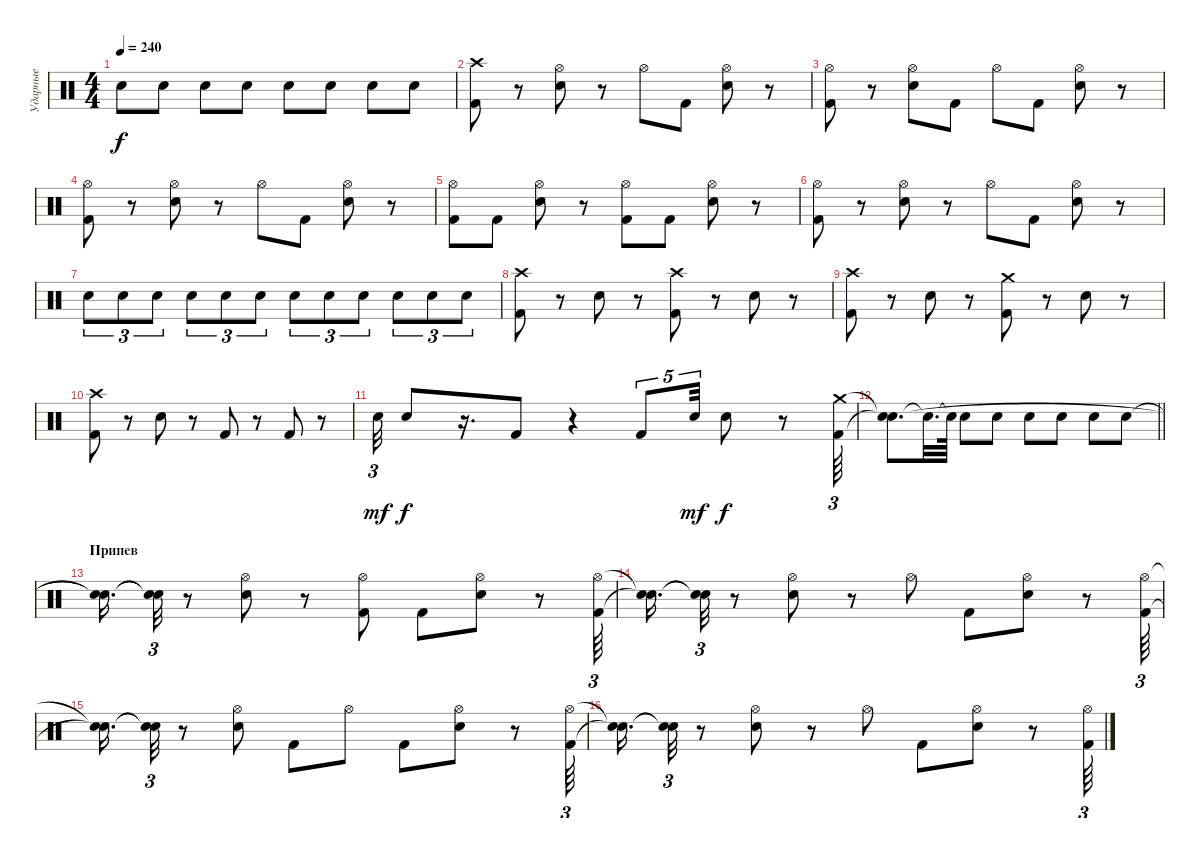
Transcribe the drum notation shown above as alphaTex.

\track ("Ударные" "Ударные") {instrument percussion}
\staff {score}
\articulation defaults
\ts (4 4)
\tempo 240
\clef neutral
\ks c "Snare (hit) 2".8{dy f} "Snare (hit) 2".8 "Snare (hit) 2".8 "Snare (hit) 2".8 "Snare (hit) 2".8 "Snare (hit) 2".8 "Snare (hit) 2".8 "Snare (hit) 2".8
|
("Kick (hit) 2" "Crash high (hit)").8 r.8 ("Hi-Hat (open)" "Snare (hit) 2").8 r.8 "Hi-Hat (open)".8 "Kick (hit) 2".8 ("Hi-Hat (open)" "Snare (hit) 2").8 r.8 |
("Kick (hit) 2" "Hi-Hat (open)").8 r.8 ("Hi-Hat (open)" "Snare (hit) 2").8 "Kick (hit) 2".8 "Hi-Hat (open)".8 "Kick (hit) 2".8 ("Snare (hit) 2" "Hi-Hat (open)").8 r.8 |
("Kick (hit) 2" "Hi-Hat (open)").8 r.8 ("Snare (hit) 2" "Hi-Hat (open)").8 r.8 "Hi-Hat (open)".8 "Kick (hit) 2".8 ("Hi-Hat (open)" "Snare (hit) 2").8 r.8 |
("Kick (hit) 2" "Hi-Hat (open)").8 "Kick (hit) 2".8 ("Snare (hit) 2" "Hi-Hat (open)").8 r.8 ("Kick (hit) 2" "Hi-Hat (open)").8 "Kick (hit) 2".8 ("Snare (hit) 2" "Hi-Hat (open)").8 r.8 |
("Hi-Hat (open)" "Kick (hit) 2").8 r.8 ("Snare (hit) 2" "Hi-Hat (open)").8 r.8 "Hi-Hat (open)".8 "Kick (hit) 2".8 ("Hi-Hat (open)" "Snare (hit) 2").8 r.8 |
"Snare (hit) 2".8{tu (3 2)} "Snare (hit) 2".8{tu (3 2)} "Snare (hit) 2".8{tu (3 2)} "Snare (hit) 2".8{tu (3 2)} "Snare (hit) 2".8{tu (3 2)} "Snare (hit) 2".8{tu (3 2)} "Snare (hit) 2".8{tu (3 2)} "Snare (hit) 2".8{tu (3 2)} "Snare (hit) 2".8{tu (3 2)} "Snare (hit) 2".8{tu (3 2)} "Snare (hit) 2".8{tu (3 2)} "Snare (hit) 2".8{tu (3 2)} |
("Kick (hit) 2" "Crash high (hit)").8 r.8 "Snare (hit) 2".8 r.8 ("Crash high (hit)" "Kick (hit) 2").8 r.8 "Snare (hit) 2".8 r.8 |
("Crash high (hit)" "Kick (hit) 2").8 r.8 "Snare (hit) 2".8 r.8 ("Kick (hit) 2" "Crash medium (hit)").8 r.8 "Snare (hit) 2".8 r.8 |
("Kick (hit) 2" "Crash high (hit)").8 r.8 "Snare (hit) 2".8 r.8 "Kick (hit) 2".8 r.8 "Kick (hit) 2".8 r.8 |
"Snare (hit) 2".32{tu (3 2) dy mf} "Snare (hit) 2".8{dy f} r.16{d} "Kick (hit) 2".8 r.4 "Kick (hit) 2".8{tu (5 4)} "Snare (hit) 2".32{tu (5 4) dy mf} "Snare (hit) 2".8{dy f} r.8 ("Crash medium (hit)" "Kick (hit) 2").64{tu (3 2)} |
\barLineRight lightlight
("Snare (hit)"{t} "Snare (hit)"{t}).8{d} "Snare (hit)"{t}.32{d} "Snare (hit)"{t}.64 "Snare (hit) 2".8 "Snare (hit) 2".8 "Snare (hit) 2".8 "Snare (hit) 2".8 "Snare (hit) 2".8 "Snare (hit) 2".8 |
\section ("" "Припев")
("Snare (hit)"{t} "Snare (hit)"{t}).16{d} ("Snare (hit)"{t} "Snare (hit)"{t}).32{tu (3 2)} r.8 ("Hi-Hat (open)" "Snare (hit) 2").8 r.8 ("Hi-Hat (open)" "Kick (hit) 2").8 "Kick (hit) 2".8 ("Snare (hit) 2" "Hi-Hat (open)").8 r.8 ("Hi-Hat (open)" "Kick (hit) 2").64{tu (3 2)} |
("Snare (hit)"{t} "Snare (hit)"{t}).16{d} ("Snare (hit)"{t} "Snare (hit)"{t}).32{tu (3 2)} r.8 ("Snare (hit) 2" "Hi-Hat (open)").8 r.8 "Hi-Hat (open)".8 "Kick (hit) 2".8 ("Snare (hit) 2" "Hi-Hat (open)").8 r.8 ("Hi-Hat (open)" "Kick (hit) 2").64{tu (3 2)} |
("Snare (hit)"{t} "Snare (hit)"{t}).16{d} ("Snare (hit)"{t} "Snare (hit)"{t}).32{tu (3 2)} r.8 ("Hi-Hat (open)" "Snare (hit) 2").8 "Kick (hit) 2".8 "Hi-Hat (open)".8 "Kick (hit) 2".8 ("Snare (hit) 2" "Hi-Hat (open)").8 r.8 ("Kick (hit) 2" "Hi-Hat (open)").64{tu (3 2)} |
("Snare (hit)"{t} "Snare (hit)"{t}).16{d} ("Snare (hit)"{t} "Snare (hit)"{t}).32{tu (3 2)} r.8 ("Hi-Hat (open)" "Snare (hit) 2").8 r.8 "Hi-Hat (open)".8 "Kick (hit) 2".8 ("Hi-Hat (open)" "Snare (hit) 2").8 r.8 ("Kick (hit) 2" "Hi-Hat (open)").64{tu (3 2)}
